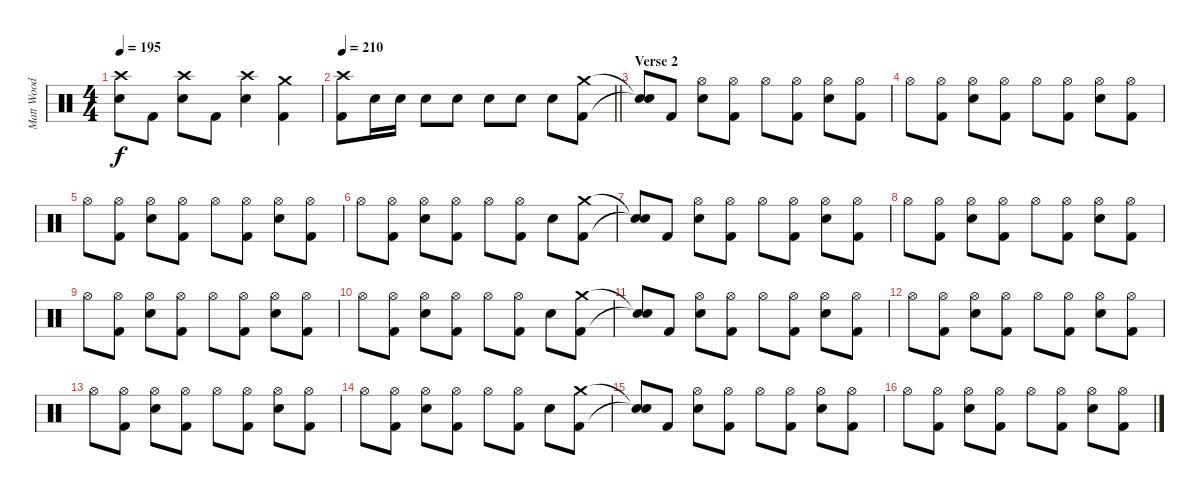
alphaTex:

\track ("Matt Wood" "Matt Wood") {instrument percussion}
\staff {score}
\articulation defaults
\ts (4 4)
\tempo 195
\clef neutral
\ks c
("Crash high (hit)" "Snare (hit) 2").8{dy f} "Kick (hit) 2".8 ("Crash high (hit)" "Snare (hit) 2").8 "Kick (hit) 2".8 ("Crash high (hit)" "Snare (hit) 2").4 ("Crash medium (hit)" "Kick (hit) 2").4 |
\tempo 210
\barLineRight lightlight
("Crash high (hit)" "Kick (hit) 2").8 "Snare (hit) 2".16 "Snare (hit) 2".16 "Snare (hit) 2".8 "Snare (hit) 2".8 "Snare (hit) 2".8 "Snare (hit) 2".8 "Snare (hit) 2".8 ("Crash medium (hit)" "Kick (hit) 2").8 |
\section ("" "Verse 2")
("Snare (hit)"{t} "Snare (hit)"{t}).8 "Kick (hit) 2".8 ("Hi-Hat (open)" "Snare (hit) 2").8 ("Hi-Hat (open)" "Kick (hit) 2").8 "Hi-Hat (open)".8 ("Hi-Hat (open)" "Kick (hit) 2").8 ("Hi-Hat (open)" "Snare (hit) 2").8 ("Hi-Hat (open)" "Kick (hit) 2").8 |
"Hi-Hat (open)".8 ("Hi-Hat (open)" "Kick (hit) 2").8 ("Hi-Hat (open)" "Snare (hit) 2").8 ("Hi-Hat (open)" "Kick (hit) 2").8 "Hi-Hat (open)".8 ("Hi-Hat (open)" "Kick (hit) 2").8 ("Hi-Hat (open)" "Snare (hit) 2").8 ("Hi-Hat (open)" "Kick (hit) 2").8 |
"Hi-Hat (open)".8 ("Hi-Hat (open)" "Kick (hit) 2").8 ("Hi-Hat (open)" "Snare (hit) 2").8 ("Hi-Hat (open)" "Kick (hit) 2").8 "Hi-Hat (open)".8 ("Hi-Hat (open)" "Kick (hit) 2").8 ("Hi-Hat (open)" "Snare (hit) 2").8 ("Hi-Hat (open)" "Kick (hit) 2").8 |
"Hi-Hat (open)".8 ("Hi-Hat (open)" "Kick (hit) 2").8 ("Hi-Hat (open)" "Snare (hit) 2").8 ("Hi-Hat (open)" "Kick (hit) 2").8 "Hi-Hat (open)".8 ("Hi-Hat (open)" "Kick (hit) 2").8 "Snare (hit) 2".8 ("Crash medium (hit)" "Kick (hit) 2").8 |
("Snare (hit)"{t} "Snare (hit)"{t}).8 "Kick (hit) 2".8 ("Hi-Hat (open)" "Snare (hit) 2").8 ("Hi-Hat (open)" "Kick (hit) 2").8 "Hi-Hat (open)".8 ("Hi-Hat (open)" "Kick (hit) 2").8 ("Hi-Hat (open)" "Snare (hit) 2").8 ("Hi-Hat (open)" "Kick (hit) 2").8 |
"Hi-Hat (open)".8 ("Hi-Hat (open)" "Kick (hit) 2").8 ("Hi-Hat (open)" "Snare (hit) 2").8 ("Hi-Hat (open)" "Kick (hit) 2").8 "Hi-Hat (open)".8 ("Hi-Hat (open)" "Kick (hit) 2").8 ("Hi-Hat (open)" "Snare (hit) 2").8 ("Hi-Hat (open)" "Kick (hit) 2").8 |
"Hi-Hat (open)".8 ("Hi-Hat (open)" "Kick (hit) 2").8 ("Hi-Hat (open)" "Snare (hit) 2").8 ("Hi-Hat (open)" "Kick (hit) 2").8 "Hi-Hat (open)".8 ("Hi-Hat (open)" "Kick (hit) 2").8 ("Hi-Hat (open)" "Snare (hit) 2").8 ("Hi-Hat (open)" "Kick (hit) 2").8 |
"Hi-Hat (open)".8 ("Hi-Hat (open)" "Kick (hit) 2").8 ("Hi-Hat (open)" "Snare (hit) 2").8 ("Hi-Hat (open)" "Kick (hit) 2").8 "Hi-Hat (open)".8 ("Hi-Hat (open)" "Kick (hit) 2").8 "Snare (hit) 2".8 ("Crash medium (hit)" "Kick (hit) 2").8 |
("Snare (hit)"{t} "Snare (hit)"{t}).8 "Kick (hit) 2".8 ("Hi-Hat (open)" "Snare (hit) 2").8 ("Hi-Hat (open)" "Kick (hit) 2").8 "Hi-Hat (open)".8 ("Hi-Hat (open)" "Kick (hit) 2").8 ("Hi-Hat (open)" "Snare (hit) 2").8 ("Hi-Hat (open)" "Kick (hit) 2").8 |
"Hi-Hat (open)".8 ("Hi-Hat (open)" "Kick (hit) 2").8 ("Hi-Hat (open)" "Snare (hit) 2").8 ("Hi-Hat (open)" "Kick (hit) 2").8 "Hi-Hat (open)".8 ("Hi-Hat (open)" "Kick (hit) 2").8 ("Hi-Hat (open)" "Snare (hit) 2").8 ("Hi-Hat (open)" "Kick (hit) 2").8 |
"Hi-Hat (open)".8 ("Hi-Hat (open)" "Kick (hit) 2").8 ("Hi-Hat (open)" "Snare (hit) 2").8 ("Hi-Hat (open)" "Kick (hit) 2").8 "Hi-Hat (open)".8 ("Hi-Hat (open)" "Kick (hit) 2").8 ("Hi-Hat (open)" "Snare (hit) 2").8 ("Hi-Hat (open)" "Kick (hit) 2").8 |
"Hi-Hat (open)".8 ("Hi-Hat (open)" "Kick (hit) 2").8 ("Hi-Hat (open)" "Snare (hit) 2").8 ("Hi-Hat (open)" "Kick (hit) 2").8 "Hi-Hat (open)".8 ("Hi-Hat (open)" "Kick (hit) 2").8 "Snare (hit) 2".8 ("Crash medium (hit)" "Kick (hit) 2").8 |
("Snare (hit)"{t} "Snare (hit)"{t}).8 "Kick (hit) 2".8 ("Hi-Hat (open)" "Snare (hit) 2").8 ("Hi-Hat (open)" "Kick (hit) 2").8 "Hi-Hat (open)".8 ("Hi-Hat (open)" "Kick (hit) 2").8 ("Hi-Hat (open)" "Snare (hit) 2").8 ("Hi-Hat (open)" "Kick (hit) 2").8 |
"Hi-Hat (open)".8 ("Hi-Hat (open)" "Kick (hit) 2").8 ("Hi-Hat (open)" "Snare (hit) 2").8 ("Hi-Hat (open)" "Kick (hit) 2").8 "Hi-Hat (open)".8 ("Hi-Hat (open)" "Kick (hit) 2").8 ("Hi-Hat (open)" "Snare (hit) 2").8 ("Hi-Hat (open)" "Kick (hit) 2").8
